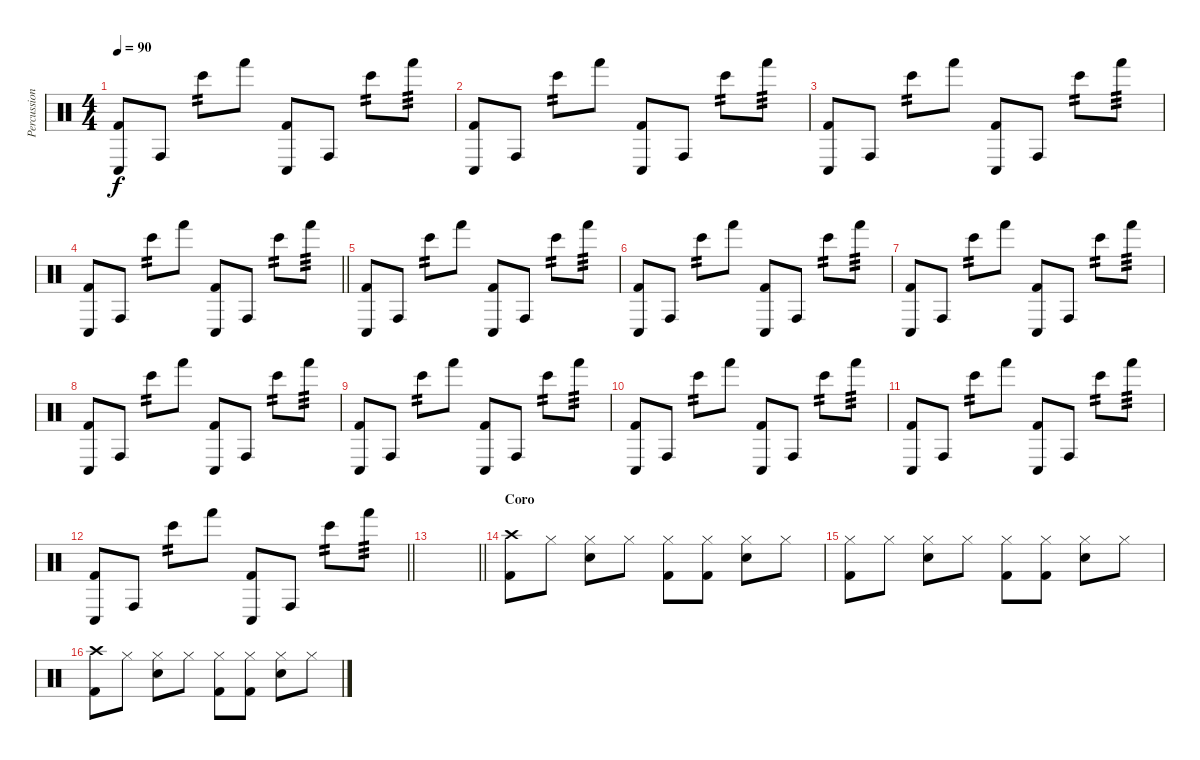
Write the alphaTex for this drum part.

\track ("Percussion" "Percussion") {instrument percussion}
\staff {score}
\articulation defaults
\ts (4 4)
\tempo 90
\clef neutral
\ks c
("Conga low (hit)" "Kick (hit) 2").8{dy f} "Conga high (hit)".8 "Bongo High (hit)".8{tp 2} "Hand (hit)".8 ("Conga low (hit)" "Kick (hit) 2").8 "Conga high (hit)".8 "Bongo High (hit)".8{tp 2} "Hand (hit)".8{tp 3} |
("Conga low (hit)" "Kick (hit) 2").8 "Conga high (hit)".8 "Bongo High (hit)".8{tp 2} "Hand (hit)".8 ("Conga low (hit)" "Kick (hit) 2").8 "Conga high (hit)".8 "Bongo High (hit)".8{tp 2} "Hand (hit)".8{tp 3} |
("Conga low (hit)" "Kick (hit) 2").8 "Conga high (hit)".8 "Bongo High (hit)".8{tp 2} "Hand (hit)".8 ("Conga low (hit)" "Kick (hit) 2").8 "Conga high (hit)".8 "Bongo High (hit)".8{tp 2} "Hand (hit)".8{tp 3} |
\barLineRight lightlight
("Conga low (hit)" "Kick (hit) 2").8 "Conga high (hit)".8 "Bongo High (hit)".8{tp 2} "Hand (hit)".8 ("Conga low (hit)" "Kick (hit) 2").8 "Conga high (hit)".8 "Bongo High (hit)".8{tp 2} "Hand (hit)".8{tp 3} |
("Conga low (hit)" "Kick (hit) 2").8 "Conga high (hit)".8 "Bongo High (hit)".8{tp 2} "Hand (hit)".8 ("Conga low (hit)" "Kick (hit) 2").8 "Conga high (hit)".8 "Bongo High (hit)".8{tp 2} "Hand (hit)".8{tp 3} |
("Conga low (hit)" "Kick (hit) 2").8 "Conga high (hit)".8 "Bongo High (hit)".8{tp 2} "Hand (hit)".8 ("Conga low (hit)" "Kick (hit) 2").8 "Conga high (hit)".8 "Bongo High (hit)".8{tp 2} "Hand (hit)".8{tp 3} |
("Conga low (hit)" "Kick (hit) 2").8 "Conga high (hit)".8 "Bongo High (hit)".8{tp 2} "Hand (hit)".8 ("Conga low (hit)" "Kick (hit) 2").8 "Conga high (hit)".8 "Bongo High (hit)".8{tp 2} "Hand (hit)".8{tp 3} |
("Conga low (hit)" "Kick (hit) 2").8 "Conga high (hit)".8 "Bongo High (hit)".8{tp 2} "Hand (hit)".8 ("Conga low (hit)" "Kick (hit) 2").8 "Conga high (hit)".8 "Bongo High (hit)".8{tp 2} "Hand (hit)".8{tp 3} |
("Conga low (hit)" "Kick (hit) 2").8 "Conga high (hit)".8 "Bongo High (hit)".8{tp 2} "Hand (hit)".8 ("Conga low (hit)" "Kick (hit) 2").8 "Conga high (hit)".8 "Bongo High (hit)".8{tp 2} "Hand (hit)".8{tp 3} |
("Conga low (hit)" "Kick (hit) 2").8 "Conga high (hit)".8 "Bongo High (hit)".8{tp 2} "Hand (hit)".8 ("Conga low (hit)" "Kick (hit) 2").8 "Conga high (hit)".8 "Bongo High (hit)".8{tp 2} "Hand (hit)".8{tp 3} |
("Conga low (hit)" "Kick (hit) 2").8 "Conga high (hit)".8 "Bongo High (hit)".8{tp 2} "Hand (hit)".8 ("Conga low (hit)" "Kick (hit) 2").8 "Conga high (hit)".8 "Bongo High (hit)".8{tp 2} "Hand (hit)".8{tp 3} |
\barLineRight lightlight
("Conga low (hit)" "Kick (hit) 2").8 "Conga high (hit)".8 "Bongo High (hit)".8{tp 2} "Hand (hit)".8 ("Conga low (hit)" "Kick (hit) 2").8 "Conga high (hit)".8 "Bongo High (hit)".8{tp 2} "Hand (hit)".8{tp 3} |
\barLineRight lightlight
|
\section ("" "Coro")
("Crash high (hit)" "Kick (hit) 2").8 "Hi-Hat (closed)".8 ("Hi-Hat (closed)" "Snare (hit) 2").8 "Hi-Hat (closed)".8 ("Hi-Hat (closed)" "Kick (hit) 2").8 ("Hi-Hat (closed)" "Kick (hit) 2").8 ("Hi-Hat (closed)" "Snare (hit) 2").8 "Hi-Hat (closed)".8 |
("Hi-Hat (closed)" "Kick (hit) 2").8 "Hi-Hat (closed)".8 ("Hi-Hat (closed)" "Snare (hit) 2").8 "Hi-Hat (closed)".8 ("Hi-Hat (closed)" "Kick (hit) 2").8 ("Hi-Hat (closed)" "Kick (hit) 2").8 ("Hi-Hat (closed)" "Snare (hit) 2").8 "Hi-Hat (closed)".8 |
("Crash high (hit)" "Kick (hit) 2").8 "Hi-Hat (closed)".8 ("Hi-Hat (closed)" "Snare (hit) 2").8 "Hi-Hat (closed)".8 ("Hi-Hat (closed)" "Kick (hit) 2").8 ("Hi-Hat (closed)" "Kick (hit) 2").8 ("Hi-Hat (closed)" "Snare (hit) 2").8 "Hi-Hat (closed)".8
